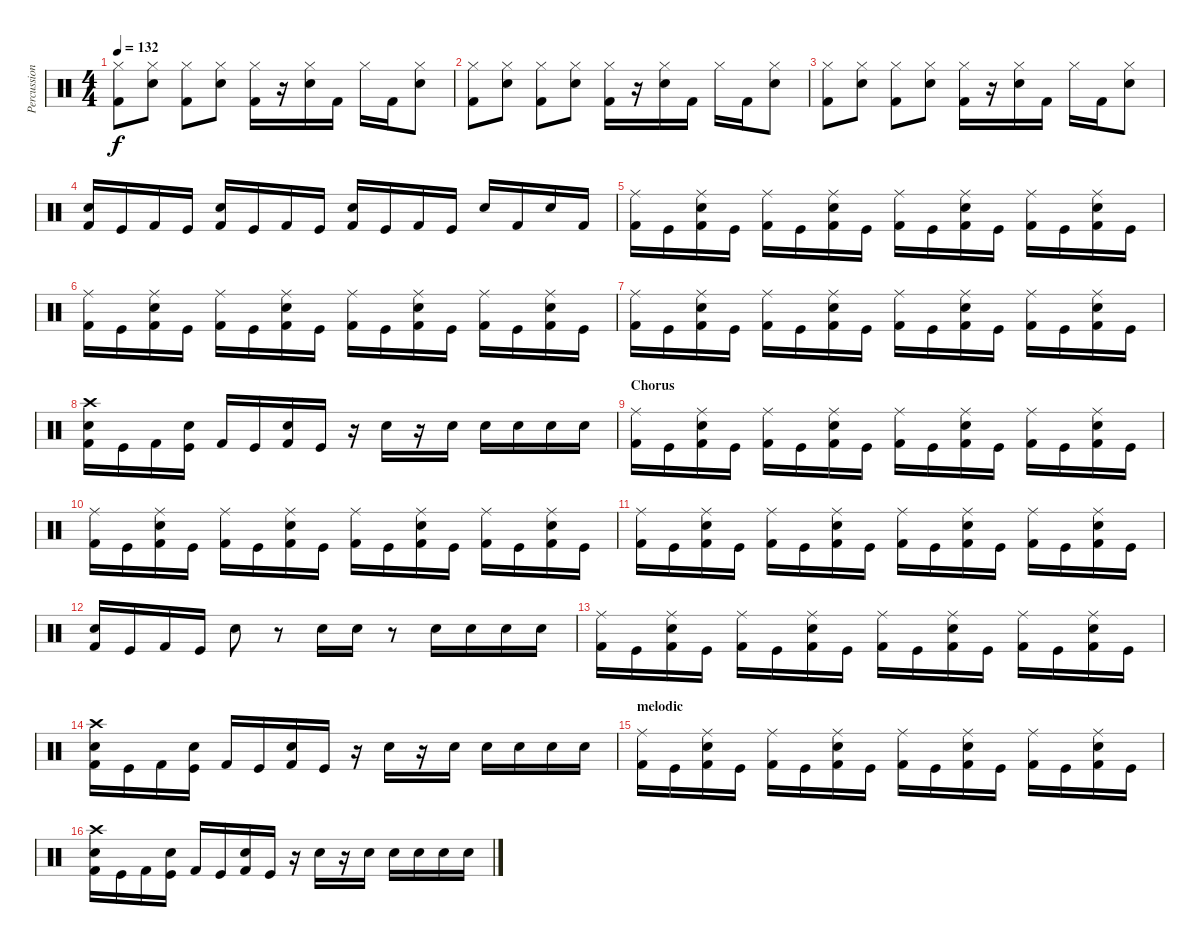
\track ("Percussion" "Percussion") {instrument percussion}
\staff {score}
\articulation defaults
\ts (4 4)
\tempo 132
\clef neutral
\ks c
("Kick (hit) 2" "Hi-Hat (closed)").8{dy f} ("Electric Snare (hit)" "Hi-Hat (closed)").8 ("Kick (hit) 2" "Hi-Hat (closed)").8 ("Electric Snare (hit)" "Hi-Hat (closed)").8 ("Kick (hit) 2" "Hi-Hat (closed)").16 r.16 ("Electric Snare (hit)" "Hi-Hat (closed)").16 "Kick (hit) 2".16 "Hi-Hat (closed)".16 "Kick (hit) 2".16 ("Electric Snare (hit)" "Hi-Hat (closed)").8 |
("Kick (hit) 2" "Hi-Hat (closed)").8 ("Electric Snare (hit)" "Hi-Hat (closed)").8 ("Kick (hit) 2" "Hi-Hat (closed)").8 ("Electric Snare (hit)" "Hi-Hat (closed)").8 ("Kick (hit) 2" "Hi-Hat (closed)").16 r.16 ("Electric Snare (hit)" "Hi-Hat (closed)").16 "Kick (hit) 2".16 "Hi-Hat (closed)".16 "Kick (hit) 2".16 ("Electric Snare (hit)" "Hi-Hat (closed)").8 |
("Kick (hit) 2" "Hi-Hat (closed)").8 ("Electric Snare (hit)" "Hi-Hat (closed)").8 ("Kick (hit) 2" "Hi-Hat (closed)").8 ("Electric Snare (hit)" "Hi-Hat (closed)").8 ("Kick (hit) 2" "Hi-Hat (closed)").16 r.16 ("Electric Snare (hit)" "Hi-Hat (closed)").16 "Kick (hit) 2".16 "Hi-Hat (closed)".16 "Kick (hit) 2".16 ("Electric Snare (hit)" "Hi-Hat (closed)").8 |
("Kick (hit) 2" "Electric Snare (hit)").16 "Kick (hit)".16 "Kick (hit) 2".16 "Kick (hit)".16 ("Kick (hit) 2" "Electric Snare (hit)").16 "Kick (hit)".16 "Kick (hit) 2".16 "Kick (hit)".16 ("Kick (hit) 2" "Electric Snare (hit)").16 "Kick (hit)".16 "Kick (hit) 2".16 "Kick (hit)".16 "Electric Snare (hit)".16 "Kick (hit) 2".16 "Electric Snare (hit)".16 "Kick (hit) 2".16 |
("Kick (hit) 2" "Ride (middle)").16 "Kick (hit)".16 ("Kick (hit) 2" "Electric Snare (hit)" "Ride (middle)").16 "Kick (hit)".16 ("Kick (hit) 2" "Ride (middle)").16 "Kick (hit)".16 ("Kick (hit) 2" "Electric Snare (hit)" "Ride (middle)").16 "Kick (hit)".16 ("Kick (hit) 2" "Ride (middle)").16 "Kick (hit)".16 ("Kick (hit) 2" "Electric Snare (hit)" "Ride (middle)").16 "Kick (hit)".16 ("Kick (hit) 2" "Ride (middle)").16 "Kick (hit)".16 ("Kick (hit) 2" "Electric Snare (hit)" "Ride (middle)").16 "Kick (hit)".16 |
("Kick (hit) 2" "Ride (middle)").16 "Kick (hit)".16 ("Kick (hit) 2" "Electric Snare (hit)" "Ride (middle)").16 "Kick (hit)".16 ("Kick (hit) 2" "Ride (middle)").16 "Kick (hit)".16 ("Kick (hit) 2" "Electric Snare (hit)" "Ride (middle)").16 "Kick (hit)".16 ("Kick (hit) 2" "Ride (middle)").16 "Kick (hit)".16 ("Kick (hit) 2" "Electric Snare (hit)" "Ride (middle)").16 "Kick (hit)".16 ("Kick (hit) 2" "Ride (middle)").16 "Kick (hit)".16 ("Kick (hit) 2" "Electric Snare (hit)" "Ride (middle)").16 "Kick (hit)".16 |
("Kick (hit) 2" "Ride (middle)").16 "Kick (hit)".16 ("Kick (hit) 2" "Electric Snare (hit)" "Ride (middle)").16 "Kick (hit)".16 ("Kick (hit) 2" "Ride (middle)").16 "Kick (hit)".16 ("Kick (hit) 2" "Electric Snare (hit)" "Ride (middle)").16 "Kick (hit)".16 ("Kick (hit) 2" "Ride (middle)").16 "Kick (hit)".16 ("Kick (hit) 2" "Electric Snare (hit)" "Ride (middle)").16 "Kick (hit)".16 ("Kick (hit) 2" "Ride (middle)").16 "Kick (hit)".16 ("Kick (hit) 2" "Electric Snare (hit)" "Ride (middle)").16 "Kick (hit)".16 |
("Kick (hit) 2" "Electric Snare (hit)" "Crash high (hit)").16 "Kick (hit)".16 "Kick (hit) 2".16 ("Kick (hit)" "Electric Snare (hit)").16 "Kick (hit) 2".16 "Kick (hit)".16 ("Kick (hit) 2" "Electric Snare (hit)").16 "Kick (hit)".16 r.16 "Electric Snare (hit)".16 r.16 "Electric Snare (hit)".16 "Electric Snare (hit)".16 "Electric Snare (hit)".16 "Electric Snare (hit)".16 "Electric Snare (hit)".16 |
\section ("" "Chorus")
("Kick (hit) 2" "Ride (middle)").16 "Kick (hit)".16 ("Kick (hit) 2" "Electric Snare (hit)" "Ride (middle)").16 "Kick (hit)".16 ("Kick (hit) 2" "Ride (middle)").16 "Kick (hit)".16 ("Kick (hit) 2" "Electric Snare (hit)" "Ride (middle)").16 "Kick (hit)".16 ("Kick (hit) 2" "Ride (middle)").16 "Kick (hit)".16 ("Kick (hit) 2" "Electric Snare (hit)" "Ride (middle)").16 "Kick (hit)".16 ("Kick (hit) 2" "Ride (middle)").16 "Kick (hit)".16 ("Kick (hit) 2" "Electric Snare (hit)" "Ride (middle)").16 "Kick (hit)".16 |
("Kick (hit) 2" "Ride (middle)").16 "Kick (hit)".16 ("Kick (hit) 2" "Electric Snare (hit)" "Ride (middle)").16 "Kick (hit)".16 ("Kick (hit) 2" "Ride (middle)").16 "Kick (hit)".16 ("Kick (hit) 2" "Electric Snare (hit)" "Ride (middle)").16 "Kick (hit)".16 ("Kick (hit) 2" "Ride (middle)").16 "Kick (hit)".16 ("Kick (hit) 2" "Electric Snare (hit)" "Ride (middle)").16 "Kick (hit)".16 ("Kick (hit) 2" "Ride (middle)").16 "Kick (hit)".16 ("Kick (hit) 2" "Electric Snare (hit)" "Ride (middle)").16 "Kick (hit)".16 |
("Kick (hit) 2" "Ride (middle)").16 "Kick (hit)".16 ("Kick (hit) 2" "Electric Snare (hit)" "Ride (middle)").16 "Kick (hit)".16 ("Kick (hit) 2" "Ride (middle)").16 "Kick (hit)".16 ("Kick (hit) 2" "Electric Snare (hit)" "Ride (middle)").16 "Kick (hit)".16 ("Kick (hit) 2" "Ride (middle)").16 "Kick (hit)".16 ("Kick (hit) 2" "Electric Snare (hit)" "Ride (middle)").16 "Kick (hit)".16 ("Kick (hit) 2" "Ride (middle)").16 "Kick (hit)".16 ("Kick (hit) 2" "Electric Snare (hit)" "Ride (middle)").16 "Kick (hit)".16 |
("Kick (hit) 2" "Electric Snare (hit)").16 "Kick (hit)".16 "Kick (hit) 2".16 "Kick (hit)".16 "Electric Snare (hit)".8 r.8 "Electric Snare (hit)".16 "Electric Snare (hit)".16 r.8 "Electric Snare (hit)".16 "Electric Snare (hit)".16 "Electric Snare (hit)".16 "Electric Snare (hit)".16 |
("Kick (hit) 2" "Ride (middle)").16 "Kick (hit)".16 ("Kick (hit) 2" "Electric Snare (hit)" "Ride (middle)").16 "Kick (hit)".16 ("Kick (hit) 2" "Ride (middle)").16 "Kick (hit)".16 ("Kick (hit) 2" "Electric Snare (hit)" "Ride (middle)").16 "Kick (hit)".16 ("Kick (hit) 2" "Ride (middle)").16 "Kick (hit)".16 ("Kick (hit) 2" "Electric Snare (hit)" "Ride (middle)").16 "Kick (hit)".16 ("Kick (hit) 2" "Ride (middle)").16 "Kick (hit)".16 ("Kick (hit) 2" "Electric Snare (hit)" "Ride (middle)").16 "Kick (hit)".16 |
("Kick (hit) 2" "Electric Snare (hit)" "Crash high (hit)").16 "Kick (hit)".16 "Kick (hit) 2".16 ("Kick (hit)" "Electric Snare (hit)").16 "Kick (hit) 2".16 "Kick (hit)".16 ("Kick (hit) 2" "Electric Snare (hit)").16 "Kick (hit)".16 r.16 "Electric Snare (hit)".16 r.16 "Electric Snare (hit)".16 "Electric Snare (hit)".16 "Electric Snare (hit)".16 "Electric Snare (hit)".16 "Electric Snare (hit)".16 |
\section ("" "melodic")
("Kick (hit) 2" "Ride (middle)").16 "Kick (hit)".16 ("Kick (hit) 2" "Electric Snare (hit)" "Ride (middle)").16 "Kick (hit)".16 ("Kick (hit) 2" "Ride (middle)").16 "Kick (hit)".16 ("Kick (hit) 2" "Electric Snare (hit)" "Ride (middle)").16 "Kick (hit)".16 ("Kick (hit) 2" "Ride (middle)").16 "Kick (hit)".16 ("Kick (hit) 2" "Electric Snare (hit)" "Ride (middle)").16 "Kick (hit)".16 ("Kick (hit) 2" "Ride (middle)").16 "Kick (hit)".16 ("Kick (hit) 2" "Electric Snare (hit)" "Ride (middle)").16 "Kick (hit)".16 |
("Kick (hit) 2" "Electric Snare (hit)" "Crash high (hit)").16 "Kick (hit)".16 "Kick (hit) 2".16 ("Kick (hit)" "Electric Snare (hit)").16 "Kick (hit) 2".16 "Kick (hit)".16 ("Kick (hit) 2" "Electric Snare (hit)").16 "Kick (hit)".16 r.16 "Electric Snare (hit)".16 r.16 "Electric Snare (hit)".16 "Electric Snare (hit)".16 "Electric Snare (hit)".16 "Electric Snare (hit)".16 "Electric Snare (hit)".16
